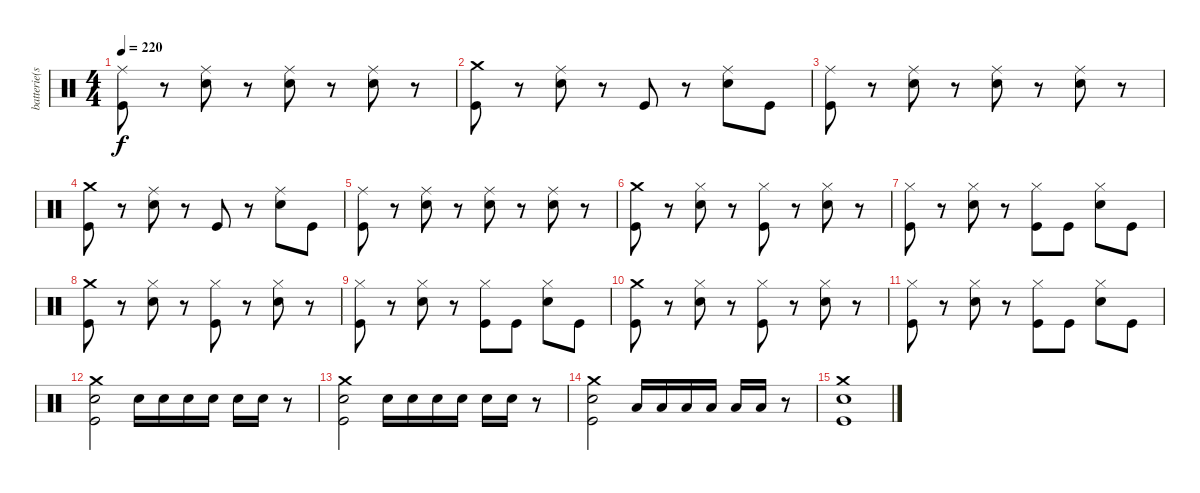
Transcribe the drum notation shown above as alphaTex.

\track ("batterie(scott)" "batterie(s") {instrument percussion}
\staff {score}
\articulation defaults
\ts (4 4)
\tempo 220
\clef neutral
\ks c
("Ride (middle)" "Kick (hit)").8{dy f} r.8 ("Ride (middle)" "Snare (hit) 2").8 r.8 ("Ride (middle)" "Snare (hit) 2").8 r.8 ("Ride (middle)" "Snare (hit) 2").8 r.8 |
("Crash medium (hit)" "Kick (hit)").8 r.8 ("Ride (middle)" "Snare (hit) 2").8 r.8 "Kick (hit)".8 r.8 ("Ride (middle)" "Snare (hit) 2").8 "Kick (hit)".8 |
("Ride (middle)" "Kick (hit)").8 r.8 ("Ride (middle)" "Snare (hit) 2").8 r.8 ("Ride (middle)" "Snare (hit) 2").8 r.8 ("Ride (middle)" "Snare (hit) 2").8 r.8 |
("Crash medium (hit)" "Kick (hit)").8 r.8 ("Ride (middle)" "Snare (hit) 2").8 r.8 "Kick (hit)".8 r.8 ("Ride (middle)" "Snare (hit) 2").8 "Kick (hit)".8 |
("Ride (middle)" "Kick (hit)").8 r.8 ("Ride (middle)" "Snare (hit) 2").8 r.8 ("Ride (middle)" "Snare (hit) 2").8 r.8 ("Ride (middle)" "Snare (hit) 2").8 r.8 |
("Crash medium (hit)" "Kick (hit)").8 r.8 ("Hi-Hat (closed)" "Snare (hit) 2").8 r.8 ("Hi-Hat (closed)" "Kick (hit)").8 r.8 ("Hi-Hat (closed)" "Snare (hit) 2").8 r.8 |
("Hi-Hat (closed)" "Kick (hit)").8 r.8 ("Hi-Hat (closed)" "Snare (hit) 2").8 r.8 ("Hi-Hat (closed)" "Kick (hit)").8 "Kick (hit)".8 ("Hi-Hat (closed)" "Snare (hit) 2").8 "Kick (hit)".8 |
("Crash medium (hit)" "Kick (hit)").8 r.8 ("Hi-Hat (closed)" "Snare (hit) 2").8 r.8 ("Hi-Hat (closed)" "Kick (hit)").8 r.8 ("Hi-Hat (closed)" "Snare (hit) 2").8 r.8 |
("Hi-Hat (closed)" "Kick (hit)").8 r.8 ("Hi-Hat (closed)" "Snare (hit) 2").8 r.8 ("Hi-Hat (closed)" "Kick (hit)").8 "Kick (hit)".8 ("Hi-Hat (closed)" "Snare (hit) 2").8 "Kick (hit)".8 |
("Crash medium (hit)" "Kick (hit)").8 r.8 ("Hi-Hat (closed)" "Snare (hit) 2").8 r.8 ("Hi-Hat (closed)" "Kick (hit)").8 r.8 ("Hi-Hat (closed)" "Snare (hit) 2").8 r.8 |
("Hi-Hat (closed)" "Kick (hit)").8 r.8 ("Hi-Hat (closed)" "Snare (hit) 2").8 r.8 ("Hi-Hat (closed)" "Kick (hit)").8 "Kick (hit)".8 ("Hi-Hat (closed)" "Snare (hit) 2").8 "Kick (hit)".8 |
("Crash medium (hit)" "Snare (hit) 2" "Kick (hit)").2 "Snare (hit) 2".16 "Snare (hit) 2".16 "Snare (hit) 2".16 "Snare (hit) 2".16 "Snare (hit) 2".16 "Snare (hit) 2".16 r.8 |
("Crash medium (hit)" "Snare (hit) 2" "Kick (hit)").2 "Snare (hit) 2".16 "Snare (hit) 2".16 "Snare (hit) 2".16 "Snare (hit) 2".16 "Snare (hit) 2".16 "Snare (hit) 2".16 r.8 |
("Crash medium (hit)" "Snare (hit) 2" "Kick (hit)").2 "Low Tom (hit)".16 "Low Tom (hit)".16 "Low Tom (hit)".16 "Low Tom (hit)".16 "Low Tom (hit)".16 "Low Tom (hit)".16 r.8 |
("Crash medium (hit)" "Snare (hit) 2" "Kick (hit)").1
